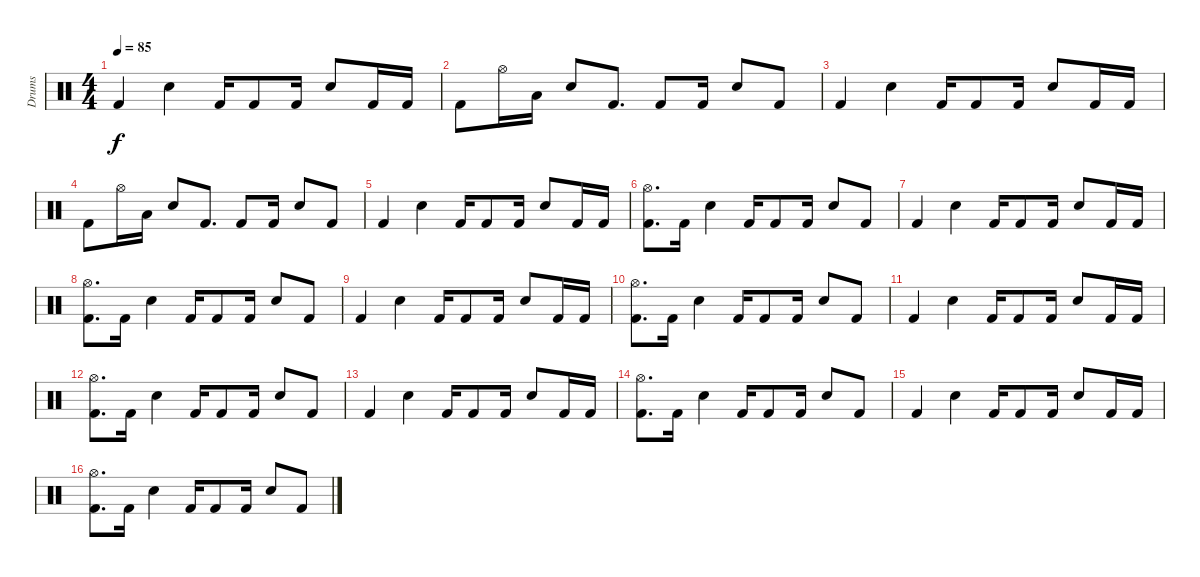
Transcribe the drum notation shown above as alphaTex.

\track ("Drums" "Drums") {instrument percussion}
\staff {score}
\articulation defaults
\ts (4 4)
\tempo 85
\clef neutral
\ks c "Kick (hit) 2".4{dy f} "Snare (hit) 2".4 "Kick (hit) 2".16 "Kick (hit) 2".8 "Kick (hit) 2".16 "Snare (hit) 2".8 "Kick (hit) 2".16 "Kick (hit) 2".16
|
"Kick (hit) 2".8 "Hi-Hat (open)".16 "Low Tom (hit)".16 "Snare (hit) 2".8 "Kick (hit) 2".8{d} "Kick (hit) 2".8 "Kick (hit) 2".16 "Snare (hit) 2".8 "Kick (hit) 2".8 |
"Kick (hit) 2".4 "Snare (hit) 2".4 "Kick (hit) 2".16 "Kick (hit) 2".8 "Kick (hit) 2".16 "Snare (hit) 2".8 "Kick (hit) 2".16 "Kick (hit) 2".16 |
"Kick (hit) 2".8 "Hi-Hat (open)".16 "Low Tom (hit)".16 "Snare (hit) 2".8 "Kick (hit) 2".8{d} "Kick (hit) 2".8 "Kick (hit) 2".16 "Snare (hit) 2".8 "Kick (hit) 2".8 |
"Kick (hit) 2".4 "Snare (hit) 2".4 "Kick (hit) 2".16 "Kick (hit) 2".8 "Kick (hit) 2".16 "Snare (hit) 2".8 "Kick (hit) 2".16 "Kick (hit) 2".16 |
("Hi-Hat (open)" "Kick (hit) 2").8{d} "Kick (hit) 2".16 "Snare (hit) 2".4 "Kick (hit) 2".16 "Kick (hit) 2".8 "Kick (hit) 2".16 "Snare (hit) 2".8 "Kick (hit) 2".8 |
"Kick (hit) 2".4 "Snare (hit) 2".4 "Kick (hit) 2".16 "Kick (hit) 2".8 "Kick (hit) 2".16 "Snare (hit) 2".8 "Kick (hit) 2".16 "Kick (hit) 2".16 |
("Hi-Hat (open)" "Kick (hit) 2").8{d} "Kick (hit) 2".16 "Snare (hit) 2".4 "Kick (hit) 2".16 "Kick (hit) 2".8 "Kick (hit) 2".16 "Snare (hit) 2".8 "Kick (hit) 2".8 |
"Kick (hit) 2".4 "Snare (hit) 2".4 "Kick (hit) 2".16 "Kick (hit) 2".8 "Kick (hit) 2".16 "Snare (hit) 2".8 "Kick (hit) 2".16 "Kick (hit) 2".16 |
("Hi-Hat (open)" "Kick (hit) 2").8{d} "Kick (hit) 2".16 "Snare (hit) 2".4 "Kick (hit) 2".16 "Kick (hit) 2".8 "Kick (hit) 2".16 "Snare (hit) 2".8 "Kick (hit) 2".8 |
"Kick (hit) 2".4 "Snare (hit) 2".4 "Kick (hit) 2".16 "Kick (hit) 2".8 "Kick (hit) 2".16 "Snare (hit) 2".8 "Kick (hit) 2".16 "Kick (hit) 2".16 |
("Hi-Hat (open)" "Kick (hit) 2").8{d} "Kick (hit) 2".16 "Snare (hit) 2".4 "Kick (hit) 2".16 "Kick (hit) 2".8 "Kick (hit) 2".16 "Snare (hit) 2".8 "Kick (hit) 2".8 |
"Kick (hit) 2".4 "Snare (hit) 2".4 "Kick (hit) 2".16 "Kick (hit) 2".8 "Kick (hit) 2".16 "Snare (hit) 2".8 "Kick (hit) 2".16 "Kick (hit) 2".16 |
("Hi-Hat (open)" "Kick (hit) 2").8{d} "Kick (hit) 2".16 "Snare (hit) 2".4 "Kick (hit) 2".16 "Kick (hit) 2".8 "Kick (hit) 2".16 "Snare (hit) 2".8 "Kick (hit) 2".8 |
"Kick (hit) 2".4 "Snare (hit) 2".4 "Kick (hit) 2".16 "Kick (hit) 2".8 "Kick (hit) 2".16 "Snare (hit) 2".8 "Kick (hit) 2".16 "Kick (hit) 2".16 |
("Hi-Hat (open)" "Kick (hit) 2").8{d} "Kick (hit) 2".16 "Snare (hit) 2".4 "Kick (hit) 2".16 "Kick (hit) 2".8 "Kick (hit) 2".16 "Snare (hit) 2".8 "Kick (hit) 2".8
